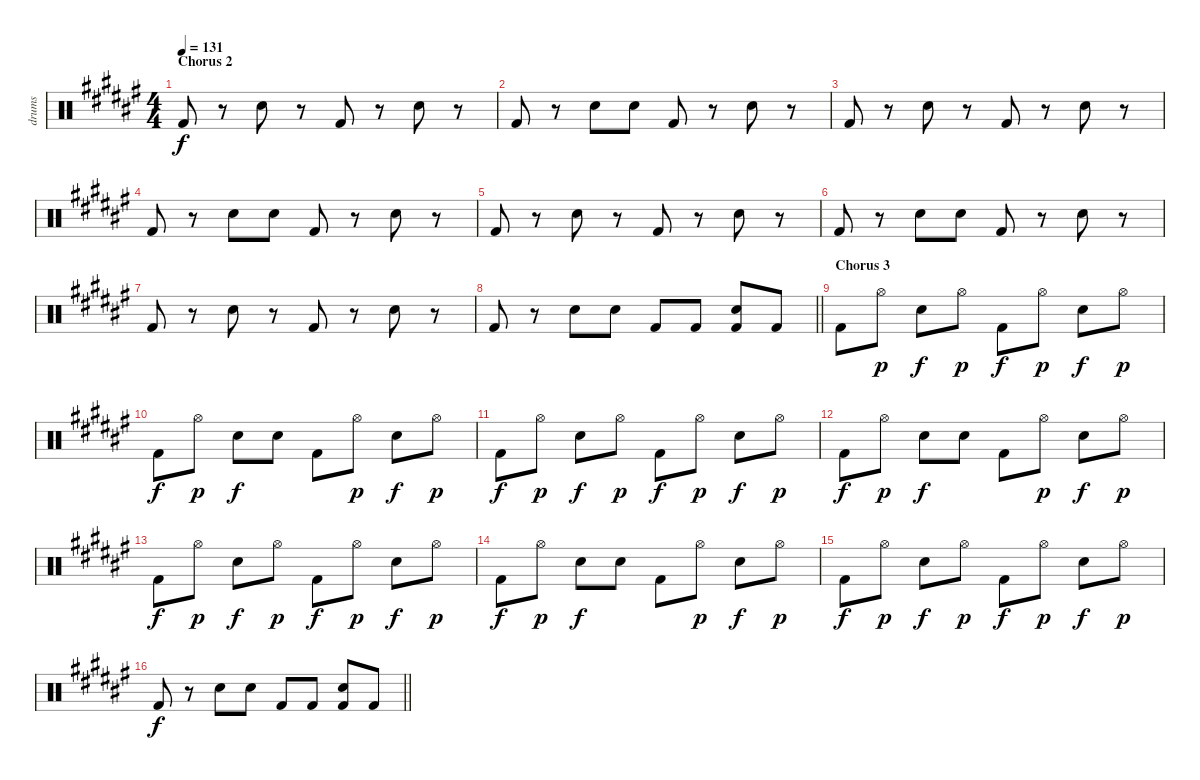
\track ("drums" "drums") {instrument percussion}
\staff {score}
\articulation defaults
\ts (4 4)
\section ("" "Chorus 2")
\tempo 131
\clef neutral
\ks f# "Kick (hit) 2".8{dy f}
r.8 "Snare (hit) 2".8 r.8 "Kick (hit) 2".8 r.8 "Snare (hit) 2".8 r.8 |
"Kick (hit) 2".8 r.8 "Snare (hit) 2".8 "Snare (hit) 2".8 "Kick (hit) 2".8 r.8 "Snare (hit) 2".8 r.8 |
"Kick (hit) 2".8 r.8 "Snare (hit) 2".8 r.8 "Kick (hit) 2".8 r.8 "Snare (hit) 2".8 r.8 |
"Kick (hit) 2".8 r.8 "Snare (hit) 2".8 "Snare (hit) 2".8 "Kick (hit) 2".8 r.8 "Snare (hit) 2".8 r.8 |
"Kick (hit) 2".8 r.8 "Snare (hit) 2".8 r.8 "Kick (hit) 2".8 r.8 "Snare (hit) 2".8 r.8 |
"Kick (hit) 2".8 r.8 "Snare (hit) 2".8 "Snare (hit) 2".8 "Kick (hit) 2".8 r.8 "Snare (hit) 2".8 r.8 |
"Kick (hit) 2".8 r.8 "Snare (hit) 2".8 r.8 "Kick (hit) 2".8 r.8 "Snare (hit) 2".8 r.8 |
\barLineRight lightlight "Kick (hit) 2".8
r.8 "Snare (hit) 2".8 "Snare (hit) 2".8 "Kick (hit) 2".8 "Kick (hit) 2".8 ("Snare (hit) 2" "Kick (hit) 2").8 "Kick (hit) 2".8 |
\section ("" "Chorus 3")
"Kick (hit) 2".8 "Hi-Hat (open)".8{dy p} "Snare (hit) 2".8{dy f} "Hi-Hat (open)".8{dy p} "Kick (hit) 2".8{dy f} "Hi-Hat (open)".8{dy p} "Snare (hit) 2".8{dy f} "Hi-Hat (open)".8{dy p} |
"Kick (hit) 2".8{dy f} "Hi-Hat (open)".8{dy p} "Snare (hit) 2".8{dy f} "Snare (hit) 2".8 "Kick (hit) 2".8 "Hi-Hat (open)".8{dy p} "Snare (hit) 2".8{dy f} "Hi-Hat (open)".8{dy p} |
"Kick (hit) 2".8{dy f} "Hi-Hat (open)".8{dy p} "Snare (hit) 2".8{dy f} "Hi-Hat (open)".8{dy p} "Kick (hit) 2".8{dy f} "Hi-Hat (open)".8{dy p} "Snare (hit) 2".8{dy f} "Hi-Hat (open)".8{dy p} |
"Kick (hit) 2".8{dy f} "Hi-Hat (open)".8{dy p} "Snare (hit) 2".8{dy f} "Snare (hit) 2".8 "Kick (hit) 2".8 "Hi-Hat (open)".8{dy p} "Snare (hit) 2".8{dy f} "Hi-Hat (open)".8{dy p} |
"Kick (hit) 2".8{dy f} "Hi-Hat (open)".8{dy p} "Snare (hit) 2".8{dy f} "Hi-Hat (open)".8{dy p} "Kick (hit) 2".8{dy f} "Hi-Hat (open)".8{dy p} "Snare (hit) 2".8{dy f} "Hi-Hat (open)".8{dy p} |
"Kick (hit) 2".8{dy f} "Hi-Hat (open)".8{dy p} "Snare (hit) 2".8{dy f} "Snare (hit) 2".8 "Kick (hit) 2".8 "Hi-Hat (open)".8{dy p} "Snare (hit) 2".8{dy f} "Hi-Hat (open)".8{dy p} |
"Kick (hit) 2".8{dy f} "Hi-Hat (open)".8{dy p} "Snare (hit) 2".8{dy f} "Hi-Hat (open)".8{dy p} "Kick (hit) 2".8{dy f} "Hi-Hat (open)".8{dy p} "Snare (hit) 2".8{dy f} "Hi-Hat (open)".8{dy p} |
\barLineRight lightlight "Kick (hit) 2".8{dy f}
r.8 "Snare (hit) 2".8 "Snare (hit) 2".8 "Kick (hit) 2".8 "Kick (hit) 2".8 ("Snare (hit) 2" "Kick (hit) 2").8 "Kick (hit) 2".8
